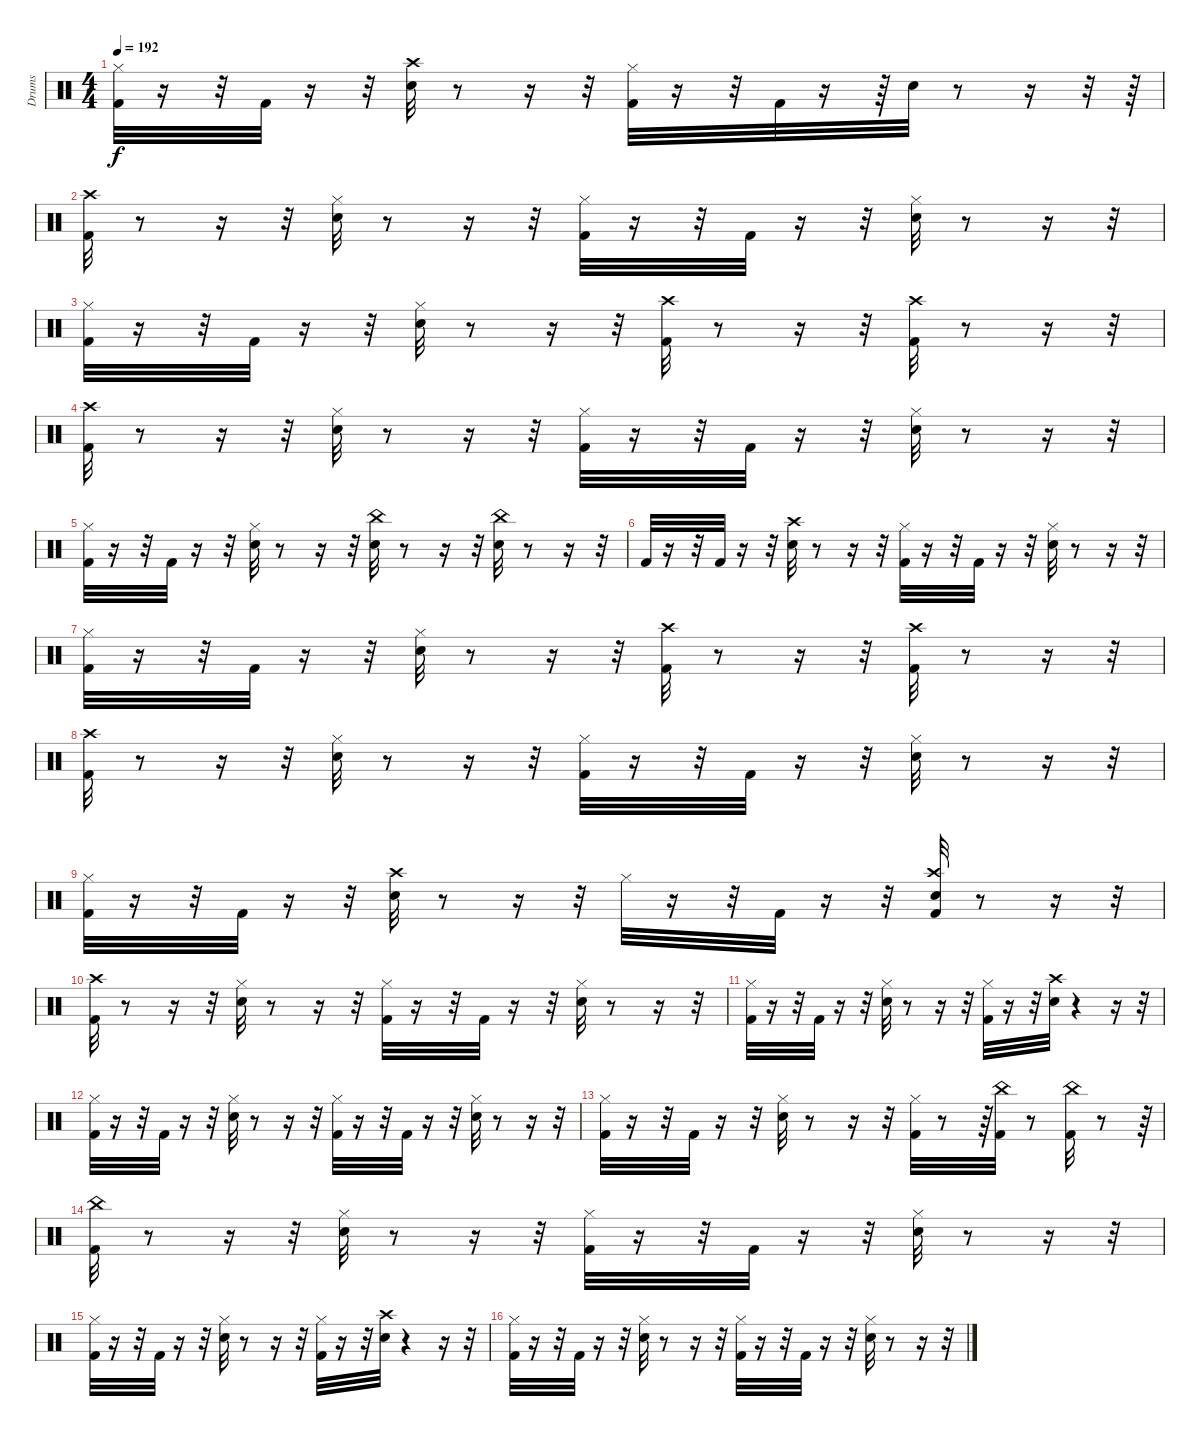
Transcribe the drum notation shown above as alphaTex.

\track ("Drums" "Drums") {instrument percussion}
\staff {score}
\articulation defaults
\ts (4 4)
\tempo 192
\clef neutral
\ks c
("Kick (hit) 2" "Hi-Hat (closed)").32{dy f} r.16 r.32 "Kick (hit) 2".32 r.16 r.32 ("Crash high (hit)" "Snare (hit) 2").32 r.8 r.16 r.32 ("Kick (hit) 2" "Hi-Hat (closed)").32 r.16 r.32 "Kick (hit) 2".32 r.16 r.64 "Snare (hit) 2".32 r.8 r.16 r.32 r.64 |
("Kick (hit) 2" "Crash high (hit)").32 r.8 r.16 r.32 ("Hi-Hat (closed)" "Snare (hit) 2").32 r.8 r.16 r.32 ("Hi-Hat (closed)" "Kick (hit) 2").32 r.16 r.32 "Kick (hit) 2".32 r.16 r.32 ("Hi-Hat (closed)" "Snare (hit) 2").32 r.8 r.16 r.32 |
("Kick (hit) 2" "Hi-Hat (closed)").32 r.16 r.32 "Kick (hit) 2".32 r.16 r.32 ("Snare (hit) 2" "Hi-Hat (closed)").32 r.8 r.16 r.32 ("Crash high (hit)" "Kick (hit) 2").32 r.8 r.16 r.32 ("Crash high (hit)" "Kick (hit) 2").32 r.8 r.16 r.32 |
("Kick (hit) 2" "Crash high (hit)").32 r.8 r.16 r.32 ("Hi-Hat (closed)" "Snare (hit) 2").32 r.8 r.16 r.32 ("Hi-Hat (closed)" "Kick (hit) 2").32 r.16 r.32 "Kick (hit) 2".32 r.16 r.32 ("Hi-Hat (closed)" "Snare (hit) 2").32 r.8 r.16 r.32 |
("Kick (hit) 2" "Hi-Hat (closed)").32 r.16 r.32 "Kick (hit) 2".32 r.16 r.32 ("Snare (hit) 2" "Hi-Hat (closed)").32 r.8 r.16 r.32 ("China (hit)" "Snare (hit) 2").32 r.8 r.16 r.32 ("China (hit)" "Snare (hit) 2").32 r.8 r.16 r.32 |
"Kick (hit) 2".32 r.16 r.32 "Kick (hit) 2".32 r.16 r.32 ("Crash high (hit)" "Snare (hit) 2").32 r.8 r.16 r.32 ("Hi-Hat (closed)" "Kick (hit) 2").32 r.16 r.32 "Kick (hit) 2".32 r.16 r.32 ("Hi-Hat (closed)" "Snare (hit) 2").32 r.8 r.16 r.32 |
("Kick (hit) 2" "Hi-Hat (closed)").32 r.16 r.32 "Kick (hit) 2".32 r.16 r.32 ("Snare (hit) 2" "Hi-Hat (closed)").32 r.8 r.16 r.32 ("Crash high (hit)" "Kick (hit) 2").32 r.8 r.16 r.32 ("Crash high (hit)" "Kick (hit) 2").32 r.8 r.16 r.32 |
("Kick (hit) 2" "Crash high (hit)").32 r.8 r.16 r.32 ("Hi-Hat (closed)" "Snare (hit) 2").32 r.8 r.16 r.32 ("Hi-Hat (closed)" "Kick (hit) 2").32 r.16 r.32 "Kick (hit) 2".32 r.16 r.32 ("Hi-Hat (closed)" "Snare (hit) 2").32 r.8 r.16 r.32 |
("Kick (hit) 2" "Hi-Hat (closed)").32 r.16 r.32 "Kick (hit) 2".32 r.16 r.32 ("Crash high (hit)" "Snare (hit) 2").32 r.8 r.16 r.32 "Hi-Hat (closed)".32 r.16 r.32 "Kick (hit) 2".32 r.16 r.32 ("Kick (hit) 2" "Snare (hit) 2" "Crash high (hit)").32 r.8 r.16 r.32 |
("Kick (hit) 2" "Crash high (hit)").32 r.8 r.16 r.32 ("Hi-Hat (closed)" "Snare (hit) 2").32 r.8 r.16 r.32 ("Hi-Hat (closed)" "Kick (hit) 2").32 r.16 r.32 "Kick (hit) 2".32 r.16 r.32 ("Hi-Hat (closed)" "Snare (hit) 2").32 r.8 r.16 r.32 |
("Kick (hit) 2" "Hi-Hat (closed)").32 r.16 r.32 "Kick (hit) 2".32 r.16 r.32 ("Snare (hit) 2" "Hi-Hat (closed)").32 r.8 r.16 r.32 ("Hi-Hat (closed)" "Kick (hit) 2").32 r.16 r.32 ("Crash high (hit)" "Snare (hit) 2").32 r.4 r.16 r.32 |
("Hi-Hat (closed)" "Kick (hit) 2").32 r.16 r.32 "Kick (hit) 2".32 r.16 r.32 ("Snare (hit) 2" "Hi-Hat (closed)").32 r.8 r.16 r.32 ("Hi-Hat (closed)" "Kick (hit) 2").32 r.16 r.32 "Kick (hit) 2".32 r.16 r.32 ("Snare (hit) 2" "Hi-Hat (closed)").32 r.8 r.16 r.32 |
("Kick (hit) 2" "Hi-Hat (closed)").32 r.16 r.32 "Kick (hit) 2".32 r.16 r.32 ("Snare (hit) 2" "Hi-Hat (closed)").32 r.8 r.16 r.32 ("Hi-Hat (closed)" "Kick (hit) 2").32 r.8 r.64 ("China (hit)" "Kick (hit) 2").32 r.8 ("China (hit)" "Kick (hit) 2").32 r.8 r.64 |
("China (hit)" "Kick (hit) 2").32 r.8 r.16 r.32 ("Hi-Hat (closed)" "Snare (hit) 2").32 r.8 r.16 r.32 ("Hi-Hat (closed)" "Kick (hit) 2").32 r.16 r.32 "Kick (hit) 2".32 r.16 r.32 ("Snare (hit) 2" "Hi-Hat (closed)").32 r.8 r.16 r.32 |
("Hi-Hat (closed)" "Kick (hit) 2").32 r.16 r.32 "Kick (hit) 2".32 r.16 r.32 ("Snare (hit) 2" "Hi-Hat (closed)").32 r.8 r.16 r.32 ("Hi-Hat (closed)" "Kick (hit) 2").32 r.16 r.32 ("Snare (hit) 2" "Crash high (hit)").32 r.4 r.16 r.32 |
("Hi-Hat (closed)" "Kick (hit) 2").32 r.16 r.32 "Kick (hit) 2".32 r.16 r.32 ("Snare (hit) 2" "Hi-Hat (closed)").32 r.8 r.16 r.32 ("Hi-Hat (closed)" "Kick (hit) 2").32 r.16 r.32 "Kick (hit) 2".32 r.16 r.32 ("Snare (hit) 2" "Hi-Hat (closed)").32 r.8 r.16 r.32
